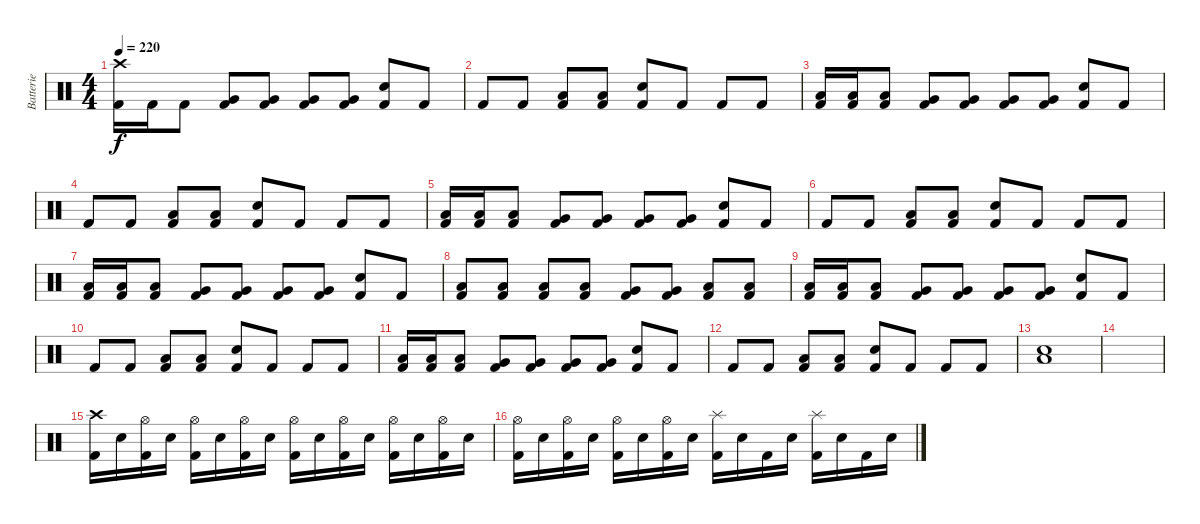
\track ("Batterie" "Batterie") {instrument percussion}
\staff {score}
\articulation defaults
\ts (4 4)
\tempo 220
\clef neutral
\ks c
("Crash high (hit)" "Kick (hit) 2").16{dy f} "Kick (hit) 2".16 "Kick (hit) 2".8 ("Very Low Tom (hit)" "Kick (hit) 2").8 ("Very Low Tom (hit)" "Kick (hit) 2").8 ("Very Low Tom (hit)" "Kick (hit) 2").8 ("Very Low Tom (hit)" "Kick (hit) 2").8 ("Electric Snare (hit)" "Kick (hit) 2").8 "Kick (hit) 2".8 |
"Kick (hit) 2".8 "Kick (hit) 2".8 ("Low Tom (hit)" "Kick (hit) 2").8 ("Low Tom (hit)" "Kick (hit) 2").8 ("Electric Snare (hit)" "Kick (hit) 2").8 "Kick (hit) 2".8 "Kick (hit) 2".8 "Kick (hit) 2".8 |
("Low Tom (hit)" "Kick (hit) 2").16 ("Low Tom (hit)" "Kick (hit) 2").16 ("Low Tom (hit)" "Kick (hit) 2").8 ("Very Low Tom (hit)" "Kick (hit) 2").8 ("Very Low Tom (hit)" "Kick (hit) 2").8 ("Very Low Tom (hit)" "Kick (hit) 2").8 ("Very Low Tom (hit)" "Kick (hit) 2").8 ("Electric Snare (hit)" "Kick (hit) 2").8 "Kick (hit) 2".8 |
"Kick (hit) 2".8 "Kick (hit) 2".8 ("Low Tom (hit)" "Kick (hit) 2").8 ("Low Tom (hit)" "Kick (hit) 2").8 ("Electric Snare (hit)" "Kick (hit) 2").8 "Kick (hit) 2".8 "Kick (hit) 2".8 "Kick (hit) 2".8 |
("Low Tom (hit)" "Kick (hit) 2").16 ("Low Tom (hit)" "Kick (hit) 2").16 ("Low Tom (hit)" "Kick (hit) 2").8 ("Very Low Tom (hit)" "Kick (hit) 2").8 ("Very Low Tom (hit)" "Kick (hit) 2").8 ("Very Low Tom (hit)" "Kick (hit) 2").8 ("Very Low Tom (hit)" "Kick (hit) 2").8 ("Electric Snare (hit)" "Kick (hit) 2").8 "Kick (hit) 2".8 |
"Kick (hit) 2".8 "Kick (hit) 2".8 ("Low Tom (hit)" "Kick (hit) 2").8 ("Low Tom (hit)" "Kick (hit) 2").8 ("Electric Snare (hit)" "Kick (hit) 2").8 "Kick (hit) 2".8 "Kick (hit) 2".8 "Kick (hit) 2".8 |
("Low Tom (hit)" "Kick (hit) 2").16 ("Low Tom (hit)" "Kick (hit) 2").16 ("Low Tom (hit)" "Kick (hit) 2").8 ("Very Low Tom (hit)" "Kick (hit) 2").8 ("Very Low Tom (hit)" "Kick (hit) 2").8 ("Very Low Tom (hit)" "Kick (hit) 2").8 ("Very Low Tom (hit)" "Kick (hit) 2").8 ("Electric Snare (hit)" "Kick (hit) 2").8 "Kick (hit) 2".8 |
("Low Tom (hit)" "Kick (hit) 2").8 ("Low Tom (hit)" "Kick (hit) 2").8 ("Low Tom (hit)" "Kick (hit) 2").8 ("Low Tom (hit)" "Kick (hit) 2").8 ("Very Low Tom (hit)" "Kick (hit) 2").8 ("Very Low Tom (hit)" "Kick (hit) 2").8 ("Low Floor Tom (hit)" "Kick (hit) 2").8 ("Low Floor Tom (hit)" "Kick (hit) 2").8 |
("Low Tom (hit)" "Kick (hit) 2").16 ("Low Tom (hit)" "Kick (hit) 2").16 ("Low Tom (hit)" "Kick (hit) 2").8 ("Very Low Tom (hit)" "Kick (hit) 2").8 ("Very Low Tom (hit)" "Kick (hit) 2").8 ("Very Low Tom (hit)" "Kick (hit) 2").8 ("Very Low Tom (hit)" "Kick (hit) 2").8 ("Electric Snare (hit)" "Kick (hit) 2").8 "Kick (hit) 2".8 |
"Kick (hit) 2".8 "Kick (hit) 2".8 ("Low Tom (hit)" "Kick (hit) 2").8 ("Low Tom (hit)" "Kick (hit) 2").8 ("Electric Snare (hit)" "Kick (hit) 2").8 "Kick (hit) 2".8 "Kick (hit) 2".8 "Kick (hit) 2".8 |
("Low Tom (hit)" "Kick (hit) 2").16 ("Low Tom (hit)" "Kick (hit) 2").16 ("Low Tom (hit)" "Kick (hit) 2").8 ("Very Low Tom (hit)" "Kick (hit) 2").8 ("Very Low Tom (hit)" "Kick (hit) 2").8 ("Very Low Tom (hit)" "Kick (hit) 2").8 ("Very Low Tom (hit)" "Kick (hit) 2").8 ("Electric Snare (hit)" "Kick (hit) 2").8 "Kick (hit) 2".8 |
"Kick (hit) 2".8 "Kick (hit) 2".8 ("Low Tom (hit)" "Kick (hit) 2").8 ("Low Tom (hit)" "Kick (hit) 2").8 ("Electric Snare (hit)" "Kick (hit) 2").8 "Kick (hit) 2".8 "Kick (hit) 2".8 "Kick (hit) 2".8 |
("Electric Snare (hit)" "Low Floor Tom (hit)").1 |
|
("Crash high (hit)" "Kick (hit) 2").16 "Electric Snare (hit)".16 ("Hi-Hat (open)" "Kick (hit) 2").16 "Electric Snare (hit)".16 ("Hi-Hat (open)" "Kick (hit) 2").16 "Electric Snare (hit)".16 ("Hi-Hat (open)" "Kick (hit) 2").16 "Electric Snare (hit)".16 ("Hi-Hat (open)" "Kick (hit) 2").16 "Electric Snare (hit)".16 ("Hi-Hat (open)" "Kick (hit) 2").16 "Electric Snare (hit)".16 ("Hi-Hat (open)" "Kick (hit) 2").16 "Electric Snare (hit)".16 ("Hi-Hat (open)" "Kick (hit) 2").16 "Electric Snare (hit)".16 |
("Hi-Hat (open)" "Kick (hit) 2").16 "Electric Snare (hit)".16 ("Hi-Hat (open)" "Kick (hit) 2").16 "Electric Snare (hit)".16 ("Hi-Hat (open)" "Kick (hit) 2").16 "Electric Snare (hit)".16 ("Hi-Hat (open)" "Kick (hit) 2").16 "Electric Snare (hit)".16 ("Splash (hit)" "Kick (hit) 2").16 "Electric Snare (hit)".16 "Kick (hit) 2".16 "Electric Snare (hit)".16 ("Splash (hit)" "Kick (hit) 2").16 "Electric Snare (hit)".16 "Kick (hit) 2".16 "Electric Snare (hit)".16
